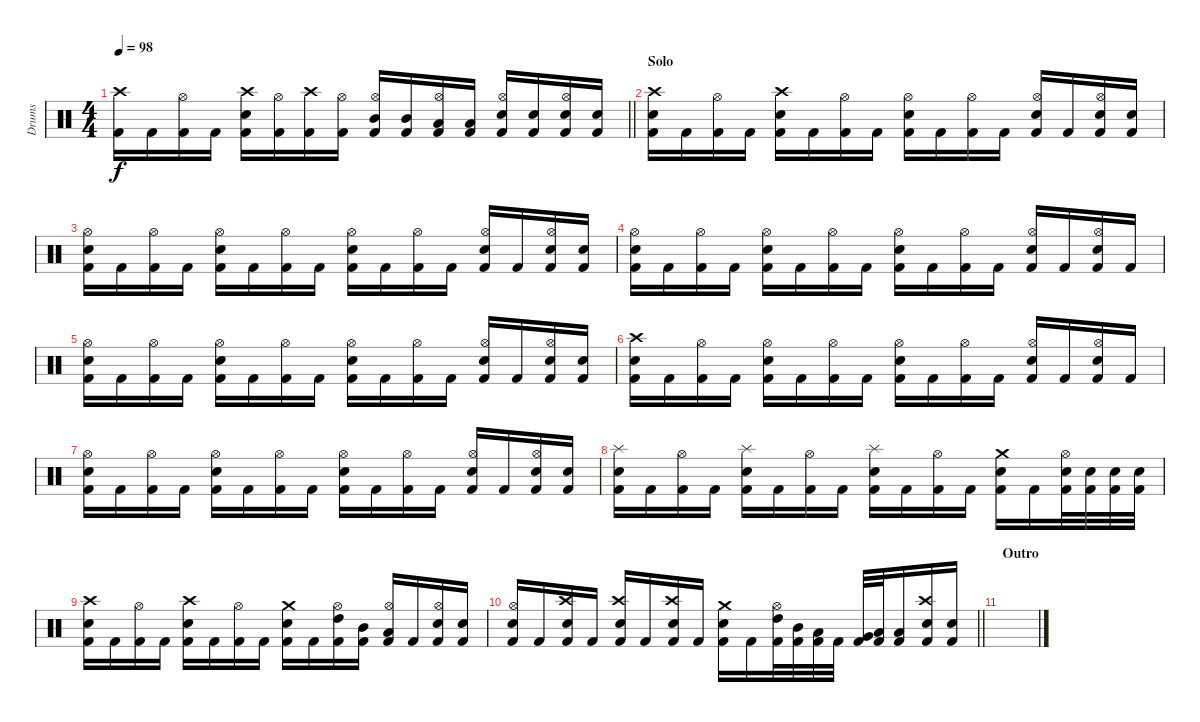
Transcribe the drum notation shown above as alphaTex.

\track ("Drums" "Drums") {instrument percussion}
\staff {score}
\articulation defaults
\ts (4 4)
\tempo 98
\clef neutral
\barLineRight lightlight
\ks c
("Kick (hit) 2" "Crash high (hit)").16{dy f} "Kick (hit) 2".16 ("Kick (hit) 2" "Hi-Hat (open)").16 "Kick (hit) 2".16 ("Kick (hit) 2" "Crash high (hit)" "Snare (hit) 2").16 ("Kick (hit) 2" "Hi-Hat (open)").16 ("Kick (hit) 2" "Crash high (hit)").16 ("Kick (hit) 2" "Hi-Hat (open)").16 ("Kick (hit) 2" "Hi-Hat (open)" "Mid Tom (hit)").16 ("Kick (hit) 2" "Mid Tom (hit)").16 ("Kick (hit) 2" "Hi-Hat (open)" "Low Tom (hit)").16 ("Kick (hit) 2" "Low Tom (hit)").16 ("Kick (hit) 2" "Hi-Hat (open)" "Snare (hit) 2").16 ("Kick (hit) 2" "Snare (hit) 2").16 ("Kick (hit) 2" "Hi-Hat (open)" "Electric Snare (hit)").16 ("Kick (hit) 2" "Electric Snare (hit)").16 |
\section ("" "Solo")
("Kick (hit) 2" "Crash high (hit)" "Snare (hit) 2").16 "Kick (hit) 2".16 ("Kick (hit) 2" "Hi-Hat (open)").16 "Kick (hit) 2".16 ("Kick (hit) 2" "Crash high (hit)" "Snare (hit) 2").16 "Kick (hit) 2".16 ("Kick (hit) 2" "Hi-Hat (open)").16 "Kick (hit) 2".16 ("Kick (hit) 2" "Hi-Hat (open)" "Snare (hit) 2").16 "Kick (hit) 2".16 ("Kick (hit) 2" "Hi-Hat (open)").16 "Kick (hit) 2".16 ("Kick (hit) 2" "Hi-Hat (open)" "Snare (hit) 2").16 "Kick (hit) 2".16 ("Kick (hit) 2" "Hi-Hat (open)" "Electric Snare (hit)").16 ("Kick (hit) 2" "Snare (hit) 2").16 |
("Kick (hit) 2" "Hi-Hat (open)" "Snare (hit) 2").16 "Kick (hit) 2".16 ("Kick (hit) 2" "Hi-Hat (open)").16 "Kick (hit) 2".16 ("Kick (hit) 2" "Hi-Hat (open)" "Snare (hit) 2").16 "Kick (hit) 2".16 ("Kick (hit) 2" "Hi-Hat (open)").16 "Kick (hit) 2".16 ("Kick (hit) 2" "Hi-Hat (open)" "Snare (hit) 2").16 "Kick (hit) 2".16 ("Kick (hit) 2" "Hi-Hat (open)").16 "Kick (hit) 2".16 ("Kick (hit) 2" "Hi-Hat (open)" "Snare (hit) 2").16 "Kick (hit) 2".16 ("Kick (hit) 2" "Hi-Hat (open)" "Electric Snare (hit)").16 ("Kick (hit) 2" "Snare (hit) 2").16 |
("Kick (hit) 2" "Hi-Hat (open)" "Snare (hit) 2").16 "Kick (hit) 2".16 ("Kick (hit) 2" "Hi-Hat (open)").16 "Kick (hit) 2".16 ("Kick (hit) 2" "Hi-Hat (open)" "Snare (hit) 2").16 "Kick (hit) 2".16 ("Kick (hit) 2" "Hi-Hat (open)").16 "Kick (hit) 2".16 ("Kick (hit) 2" "Hi-Hat (open)" "Snare (hit) 2").16 "Kick (hit) 2".16 ("Kick (hit) 2" "Hi-Hat (open)").16 "Kick (hit) 2".16 ("Kick (hit) 2" "Hi-Hat (open)" "Snare (hit) 2").16 "Kick (hit) 2".16 ("Kick (hit) 2" "Hi-Hat (open)" "Electric Snare (hit)").16 "Kick (hit) 2".16 |
("Kick (hit) 2" "Hi-Hat (open)" "Snare (hit) 2").16 "Kick (hit) 2".16 ("Kick (hit) 2" "Hi-Hat (open)").16 "Kick (hit) 2".16 ("Kick (hit) 2" "Hi-Hat (open)" "Snare (hit) 2").16 "Kick (hit) 2".16 ("Kick (hit) 2" "Hi-Hat (open)").16 "Kick (hit) 2".16 ("Kick (hit) 2" "Hi-Hat (open)" "Snare (hit) 2").16 "Kick (hit) 2".16 ("Kick (hit) 2" "Hi-Hat (open)").16 "Kick (hit) 2".16 ("Kick (hit) 2" "Hi-Hat (open)" "Snare (hit) 2").16 "Kick (hit) 2".16 ("Kick (hit) 2" "Hi-Hat (open)" "Electric Snare (hit)").16 ("Kick (hit) 2" "Snare (hit) 2").16 |
("Kick (hit) 2" "Crash high (hit)" "Snare (hit) 2").16 "Kick (hit) 2".16 ("Kick (hit) 2" "Hi-Hat (open)").16 "Kick (hit) 2".16 ("Kick (hit) 2" "Hi-Hat (open)" "Snare (hit) 2").16 "Kick (hit) 2".16 ("Kick (hit) 2" "Hi-Hat (open)").16 "Kick (hit) 2".16 ("Kick (hit) 2" "Hi-Hat (open)" "Snare (hit) 2").16 "Kick (hit) 2".16 ("Kick (hit) 2" "Hi-Hat (open)").16 "Kick (hit) 2".16 ("Kick (hit) 2" "Hi-Hat (open)" "Snare (hit) 2").16 "Kick (hit) 2".16 ("Kick (hit) 2" "Hi-Hat (open)" "Electric Snare (hit)").16 "Kick (hit) 2".16 |
("Kick (hit) 2" "Hi-Hat (open)" "Snare (hit) 2").16 "Kick (hit) 2".16 ("Kick (hit) 2" "Hi-Hat (open)").16 "Kick (hit) 2".16 ("Kick (hit) 2" "Hi-Hat (open)" "Snare (hit) 2").16 "Kick (hit) 2".16 ("Kick (hit) 2" "Hi-Hat (open)").16 "Kick (hit) 2".16 ("Kick (hit) 2" "Hi-Hat (open)" "Snare (hit) 2").16 "Kick (hit) 2".16 ("Kick (hit) 2" "Hi-Hat (open)").16 "Kick (hit) 2".16 ("Kick (hit) 2" "Hi-Hat (open)" "Snare (hit) 2").16 "Kick (hit) 2".16 ("Kick (hit) 2" "Hi-Hat (open)" "Electric Snare (hit)").16 ("Kick (hit) 2" "Snare (hit) 2").16 |
("Kick (hit) 2" "Splash (hit)" "Snare (hit) 2").16 "Kick (hit) 2".16 ("Kick (hit) 2" "Hi-Hat (open)").16 "Kick (hit) 2".16 ("Kick (hit) 2" "Snare (hit) 2" "Splash (hit)").16 "Kick (hit) 2".16 ("Kick (hit) 2" "Hi-Hat (open)").16 "Kick (hit) 2".16 ("Kick (hit) 2" "Snare (hit) 2" "Splash (hit)").16 "Kick (hit) 2".16 ("Kick (hit) 2" "Hi-Hat (open)").16 "Kick (hit) 2".16 ("Kick (hit) 2" "Crash medium (hit)" "Snare (hit) 2").16 "Kick (hit) 2".16 ("Kick (hit) 2" "Hi-Hat (open)" "Electric Snare (hit)").32 ("Kick (hit) 2" "Snare (hit) 2").32 ("Snare (hit) 2" "Kick (hit) 2").32 ("Snare (hit) 2" "Kick (hit) 2").32 |
("Kick (hit) 2" "Crash high (hit)" "Snare (hit) 2").16 "Kick (hit) 2".16 ("Kick (hit) 2" "Hi-Hat (open)").16 "Kick (hit) 2".16 ("Kick (hit) 2" "Crash high (hit)" "Snare (hit) 2").16 "Kick (hit) 2".16 ("Kick (hit) 2" "Hi-Hat (open)").16 "Kick (hit) 2".16 ("Kick (hit) 2" "Crash medium (hit)" "Snare (hit) 2").16 "Kick (hit) 2".16 ("Kick (hit) 2" "Hi-Hat (open)" "High Tom (hit)").16 ("Kick (hit) 2" "Mid Tom (hit)").16 ("Kick (hit) 2" "Hi-Hat (open)" "Low Tom (hit)").16 "Kick (hit) 2".16 ("Kick (hit) 2" "Hi-Hat (open)" "Electric Snare (hit)").16 ("Kick (hit) 2" "Snare (hit) 2").16 |
\barLineRight lightlight
("Kick (hit) 2" "Hi-Hat (open)" "Snare (hit) 2").16 "Kick (hit) 2".16 ("Kick (hit) 2" "Crash high (hit)" "Snare (hit) 2").16 "Kick (hit) 2".16 ("Kick (hit) 2" "Crash high (hit)" "Snare (hit) 2").16 "Kick (hit) 2".16 ("Kick (hit) 2" "Crash high (hit)" "Snare (hit) 2").16 "Kick (hit) 2".16 ("Kick (hit) 2" "Crash medium (hit)" "Snare (hit) 2").16 "Kick (hit) 2".16 ("Kick (hit) 2" "Hi-Hat (open)" "High Tom (hit)").32 ("Kick (hit) 2" "Mid Tom (hit)").32 ("Kick (hit) 2" "Low Tom (hit)").32 "Kick (hit) 2".32 ("Kick (hit) 2" "Very Low Tom (hit)").32 ("Kick (hit) 2" "Low Floor Tom (hit)").32 ("Kick (hit) 2" "Low Floor Tom (hit)").16 ("Kick (hit) 2" "Snare (hit) 2" "Crash high (hit)").16 ("Kick (hit) 2" "Snare (hit) 2").16 |
\section ("" "Outro")
